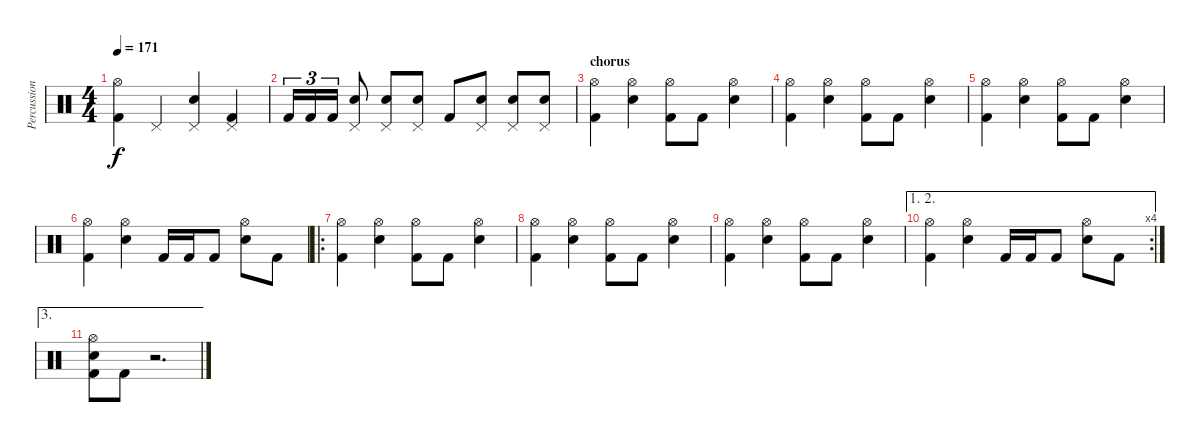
\track ("Percussion" "Percussion") {instrument percussion}
\staff {score}
\articulation defaults
\ts (4 4)
\tempo 171
\clef neutral
\ks c
("Hi-Hat (open)" "Kick (hit) 2").4{dy f} "Pedal Hi-Hat (hit)".4 ("Pedal Hi-Hat (hit)" "Electric Snare (hit)").4 ("Pedal Hi-Hat (hit)" "Kick (hit) 2").4 |
"Kick (hit) 2".16{tu (3 2)} "Kick (hit) 2".16{tu (3 2)} "Kick (hit) 2".16{tu (3 2)} ("Pedal Hi-Hat (hit)" "Electric Snare (hit)").8 ("Pedal Hi-Hat (hit)" "Electric Snare (hit)").8 ("Pedal Hi-Hat (hit)" "Electric Snare (hit)").8 "Kick (hit) 2".8 ("Pedal Hi-Hat (hit)" "Electric Snare (hit)").8 ("Pedal Hi-Hat (hit)" "Electric Snare (hit)").8 ("Pedal Hi-Hat (hit)" "Electric Snare (hit)").8 |
\section ("" "chorus")
("Hi-Hat (open)" "Kick (hit) 2").4 ("Hi-Hat (open)" "Electric Snare (hit)").4 ("Hi-Hat (open)" "Kick (hit) 2").8 "Kick (hit) 2".8 ("Hi-Hat (open)" "Electric Snare (hit)").4 |
("Hi-Hat (open)" "Kick (hit) 2").4 ("Hi-Hat (open)" "Electric Snare (hit)").4 ("Hi-Hat (open)" "Kick (hit) 2").8 "Kick (hit) 2".8 ("Hi-Hat (open)" "Electric Snare (hit)").4 |
("Hi-Hat (open)" "Kick (hit) 2").4 ("Hi-Hat (open)" "Electric Snare (hit)").4 ("Hi-Hat (open)" "Kick (hit) 2").8 "Kick (hit) 2".8 ("Hi-Hat (open)" "Electric Snare (hit)").4 |
("Hi-Hat (open)" "Kick (hit) 2").4 ("Hi-Hat (open)" "Electric Snare (hit)").4 "Kick (hit) 2".16 "Kick (hit) 2".16 "Kick (hit) 2".8 ("Hi-Hat (open)" "Electric Snare (hit)").8 "Kick (hit) 2".8 |
\ro
("Hi-Hat (open)" "Kick (hit) 2").4 ("Hi-Hat (open)" "Electric Snare (hit)").4 ("Hi-Hat (open)" "Kick (hit) 2").8 "Kick (hit) 2".8 ("Hi-Hat (open)" "Electric Snare (hit)").4 |
("Hi-Hat (open)" "Kick (hit) 2").4 ("Hi-Hat (open)" "Electric Snare (hit)").4 ("Hi-Hat (open)" "Kick (hit) 2").8 "Kick (hit) 2".8 ("Hi-Hat (open)" "Electric Snare (hit)").4 |
("Hi-Hat (open)" "Kick (hit) 2").4 ("Hi-Hat (open)" "Electric Snare (hit)").4 ("Hi-Hat (open)" "Kick (hit) 2").8 "Kick (hit) 2".8 ("Hi-Hat (open)" "Electric Snare (hit)").4 |
\ae (1 2)
\rc 4
("Hi-Hat (open)" "Kick (hit) 2").4 ("Hi-Hat (open)" "Electric Snare (hit)").4 "Kick (hit) 2".16 "Kick (hit) 2".16 "Kick (hit) 2".8 ("Hi-Hat (open)" "Electric Snare (hit)").8 "Kick (hit) 2".8 |
\ae 3
("Hi-Hat (open)" "Electric Snare (hit)" "Kick (hit) 2").8 "Kick (hit) 2".8 r.2{d}
